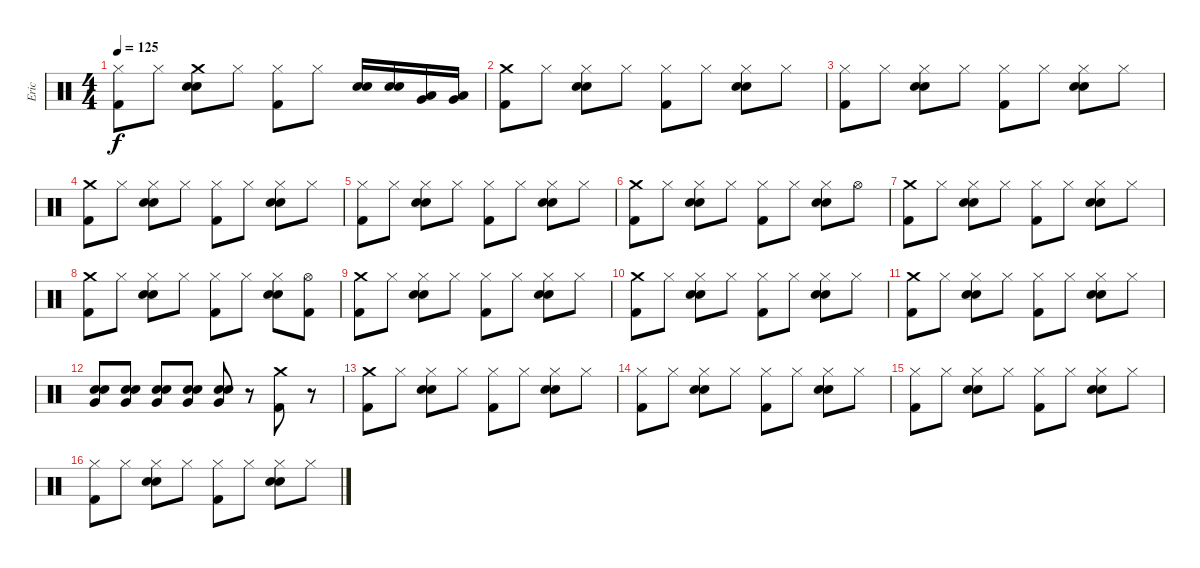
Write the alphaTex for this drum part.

\track ("Eric" "Eric") {instrument percussion}
\staff {score}
\articulation defaults
\ts (4 4)
\tempo 125
\clef neutral
\ks c
("Hi-Hat (closed)" "Kick (hit) 2").8{dy f} "Hi-Hat (closed)".8 ("Crash medium (hit)" "Electric Snare (hit)" "Snare (hit) 2").8 "Hi-Hat (closed)".8 ("Hi-Hat (closed)" "Kick (hit) 2").8 "Hi-Hat (closed)".8 ("Snare (hit) 2" "Electric Snare (hit)").16 ("Snare (hit) 2" "Electric Snare (hit)").16 ("Low Tom (hit)" "Very Low Tom (hit)").16 ("Low Tom (hit)" "Very Low Tom (hit)").16 |
("Crash medium (hit)" "Kick (hit) 2").8 "Hi-Hat (closed)".8 ("Hi-Hat (closed)" "Electric Snare (hit)" "Snare (hit) 2").8 "Hi-Hat (closed)".8 ("Hi-Hat (closed)" "Kick (hit) 2").8 "Hi-Hat (closed)".8 ("Hi-Hat (closed)" "Snare (hit) 2" "Electric Snare (hit)").8 "Hi-Hat (closed)".8 |
("Hi-Hat (closed)" "Kick (hit) 2").8 "Hi-Hat (closed)".8 ("Hi-Hat (closed)" "Electric Snare (hit)" "Snare (hit) 2").8 "Hi-Hat (closed)".8 ("Hi-Hat (closed)" "Kick (hit) 2").8 "Hi-Hat (closed)".8 ("Hi-Hat (closed)" "Snare (hit) 2" "Electric Snare (hit)").8 "Hi-Hat (closed)".8 |
("Crash medium (hit)" "Kick (hit) 2").8 "Hi-Hat (closed)".8 ("Hi-Hat (closed)" "Electric Snare (hit)" "Snare (hit) 2").8 "Hi-Hat (closed)".8 ("Hi-Hat (closed)" "Kick (hit) 2").8 "Hi-Hat (closed)".8 ("Hi-Hat (closed)" "Snare (hit) 2" "Electric Snare (hit)").8 "Hi-Hat (closed)".8 |
("Hi-Hat (closed)" "Kick (hit) 2").8 "Hi-Hat (closed)".8 ("Hi-Hat (closed)" "Electric Snare (hit)" "Snare (hit) 2").8 "Hi-Hat (closed)".8 ("Hi-Hat (closed)" "Kick (hit) 2").8 "Hi-Hat (closed)".8 ("Hi-Hat (closed)" "Snare (hit) 2" "Electric Snare (hit)").8 "Hi-Hat (closed)".8 |
("Crash medium (hit)" "Kick (hit) 2").8 "Hi-Hat (closed)".8 ("Hi-Hat (closed)" "Electric Snare (hit)" "Snare (hit) 2").8 "Hi-Hat (closed)".8 ("Hi-Hat (closed)" "Kick (hit) 2").8 "Hi-Hat (closed)".8 ("Hi-Hat (closed)" "Snare (hit) 2" "Electric Snare (hit)").8 "Hi-Hat (open)".8 |
("Crash medium (hit)" "Kick (hit) 2").8 "Hi-Hat (closed)".8 ("Hi-Hat (closed)" "Electric Snare (hit)" "Snare (hit) 2").8 "Hi-Hat (closed)".8 ("Hi-Hat (closed)" "Kick (hit) 2").8 "Hi-Hat (closed)".8 ("Hi-Hat (closed)" "Snare (hit) 2" "Electric Snare (hit)").8 "Hi-Hat (closed)".8 |
("Crash medium (hit)" "Kick (hit) 2").8 "Hi-Hat (closed)".8 ("Hi-Hat (closed)" "Electric Snare (hit)" "Snare (hit) 2").8 "Hi-Hat (closed)".8 ("Hi-Hat (closed)" "Kick (hit) 2").8 "Hi-Hat (closed)".8 ("Hi-Hat (closed)" "Snare (hit) 2" "Electric Snare (hit)").8 ("Kick (hit) 2" "Hi-Hat (open)").8 |
("Crash medium (hit)" "Kick (hit) 2").8 "Hi-Hat (closed)".8 ("Hi-Hat (closed)" "Electric Snare (hit)" "Snare (hit) 2").8 "Hi-Hat (closed)".8 ("Hi-Hat (closed)" "Kick (hit) 2").8 "Hi-Hat (closed)".8 ("Hi-Hat (closed)" "Snare (hit) 2" "Electric Snare (hit)").8 "Hi-Hat (closed)".8 |
("Crash medium (hit)" "Kick (hit) 2").8 "Hi-Hat (closed)".8 ("Hi-Hat (closed)" "Electric Snare (hit)" "Snare (hit) 2").8 "Hi-Hat (closed)".8 ("Hi-Hat (closed)" "Kick (hit) 2").8 "Hi-Hat (closed)".8 ("Hi-Hat (closed)" "Snare (hit) 2" "Electric Snare (hit)").8 "Hi-Hat (closed)".8 |
("Crash medium (hit)" "Kick (hit) 2").8 "Hi-Hat (closed)".8 ("Hi-Hat (closed)" "Electric Snare (hit)" "Snare (hit) 2").8 "Hi-Hat (closed)".8 ("Hi-Hat (closed)" "Kick (hit) 2").8 "Hi-Hat (closed)".8 ("Hi-Hat (closed)" "Snare (hit) 2" "Electric Snare (hit)").8 "Hi-Hat (closed)".8 |
("Very Low Tom (hit)" "Electric Snare (hit)" "Snare (hit) 2").8 ("Very Low Tom (hit)" "Electric Snare (hit)" "Snare (hit) 2").8 ("Very Low Tom (hit)" "Electric Snare (hit)" "Snare (hit) 2").8 ("Very Low Tom (hit)" "Electric Snare (hit)" "Snare (hit) 2").8 ("Very Low Tom (hit)" "Electric Snare (hit)" "Snare (hit) 2").8 r.8 ("Crash medium (hit)" "Kick (hit) 2").8 r.8 |
("Crash medium (hit)" "Kick (hit) 2").8 "Hi-Hat (closed)".8 ("Hi-Hat (closed)" "Electric Snare (hit)" "Snare (hit) 2").8 "Hi-Hat (closed)".8 ("Hi-Hat (closed)" "Kick (hit) 2").8 "Hi-Hat (closed)".8 ("Hi-Hat (closed)" "Snare (hit) 2" "Electric Snare (hit)").8 "Hi-Hat (closed)".8 |
("Hi-Hat (closed)" "Kick (hit) 2").8 "Hi-Hat (closed)".8 ("Hi-Hat (closed)" "Electric Snare (hit)" "Snare (hit) 2").8 "Hi-Hat (closed)".8 ("Hi-Hat (closed)" "Kick (hit) 2").8 "Hi-Hat (closed)".8 ("Hi-Hat (closed)" "Snare (hit) 2" "Electric Snare (hit)").8 "Hi-Hat (closed)".8 |
("Hi-Hat (closed)" "Kick (hit) 2").8 "Hi-Hat (closed)".8 ("Hi-Hat (closed)" "Electric Snare (hit)" "Snare (hit) 2").8 "Hi-Hat (closed)".8 ("Hi-Hat (closed)" "Kick (hit) 2").8 "Hi-Hat (closed)".8 ("Hi-Hat (closed)" "Snare (hit) 2" "Electric Snare (hit)").8 "Hi-Hat (closed)".8 |
("Hi-Hat (closed)" "Kick (hit) 2").8 "Hi-Hat (closed)".8 ("Hi-Hat (closed)" "Electric Snare (hit)" "Snare (hit) 2").8 "Hi-Hat (closed)".8 ("Hi-Hat (closed)" "Kick (hit) 2").8 "Hi-Hat (closed)".8 ("Hi-Hat (closed)" "Snare (hit) 2" "Electric Snare (hit)").8 "Hi-Hat (closed)".8
